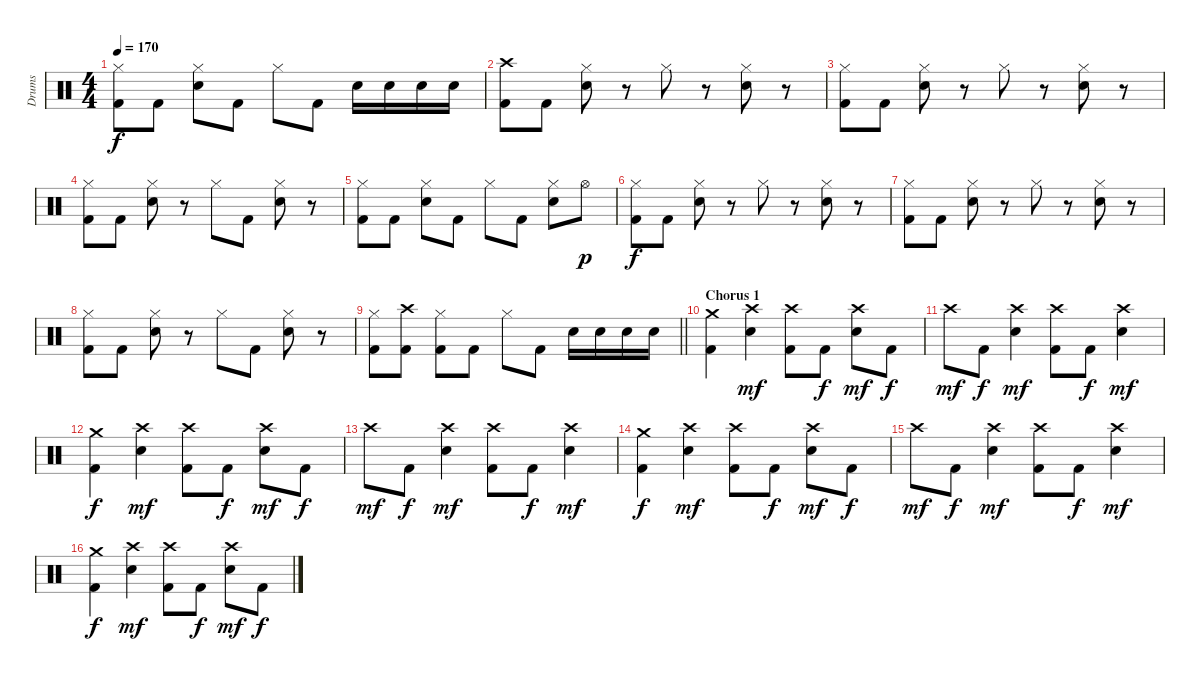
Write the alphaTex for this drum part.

\track ("Drums" "Drums") {instrument percussion}
\staff {score}
\articulation defaults
\ts (4 4)
\tempo 170
\clef neutral
\ks c
("Hi-Hat (closed)" "Kick (hit) 2").8{dy f} "Kick (hit) 2".8 ("Hi-Hat (closed)" "Electric Snare (hit)").8 "Kick (hit) 2".8 "Hi-Hat (closed)".8 "Kick (hit) 2".8 "Electric Snare (hit)".16 "Electric Snare (hit)".16 "Electric Snare (hit)".16 "Electric Snare (hit)".16 |
("Crash high (hit)" "Kick (hit) 2").8 "Kick (hit) 2".8 ("Hi-Hat (closed)" "Electric Snare (hit)").8 r.8 "Hi-Hat (closed)".8 r.8 ("Hi-Hat (closed)" "Electric Snare (hit)").8 r.8 |
("Hi-Hat (closed)" "Kick (hit) 2").8 "Kick (hit) 2".8 ("Hi-Hat (closed)" "Electric Snare (hit)").8 r.8 "Hi-Hat (closed)".8 r.8 ("Hi-Hat (closed)" "Electric Snare (hit)").8 r.8 |
("Hi-Hat (closed)" "Kick (hit) 2").8 "Kick (hit) 2".8 ("Hi-Hat (closed)" "Electric Snare (hit)").8 r.8 "Hi-Hat (closed)".8 "Kick (hit) 2".8 ("Hi-Hat (closed)" "Electric Snare (hit)").8 r.8 |
("Hi-Hat (closed)" "Kick (hit) 2").8 "Kick (hit) 2".8 ("Hi-Hat (closed)" "Electric Snare (hit)").8 "Kick (hit) 2".8 "Hi-Hat (closed)".8 "Kick (hit) 2".8 ("Hi-Hat (closed)" "Electric Snare (hit)").8 "Hi-Hat (open)".8{dy p} |
("Hi-Hat (closed)" "Kick (hit) 2").8{dy f} "Kick (hit) 2".8 ("Hi-Hat (closed)" "Electric Snare (hit)").8 r.8 "Hi-Hat (closed)".8 r.8 ("Hi-Hat (closed)" "Electric Snare (hit)").8 r.8 |
("Hi-Hat (closed)" "Kick (hit) 2").8 "Kick (hit) 2".8 ("Hi-Hat (closed)" "Electric Snare (hit)").8 r.8 "Hi-Hat (closed)".8 r.8 ("Hi-Hat (closed)" "Electric Snare (hit)").8 r.8 |
("Hi-Hat (closed)" "Kick (hit) 2").8 "Kick (hit) 2".8 ("Hi-Hat (closed)" "Electric Snare (hit)").8 r.8 "Hi-Hat (closed)".8 "Kick (hit) 2".8 ("Hi-Hat (closed)" "Electric Snare (hit)").8 r.8 |
\barLineRight lightlight
("Hi-Hat (closed)" "Kick (hit) 2").8 ("Crash high (hit)" "Kick (hit) 2").8 ("Hi-Hat (closed)" "Kick (hit) 2").8 "Kick (hit) 2".8 "Hi-Hat (closed)".8 "Kick (hit) 2".8 "Electric Snare (hit)".16 "Electric Snare (hit)".16 "Electric Snare (hit)".16 "Electric Snare (hit)".16 |
\section ("" "Chorus 1")
("Crash medium (hit)" "Kick (hit) 2").4 ("Crash high (hit)" "Electric Snare (hit)").4{dy mf} ("Crash high (hit)" "Kick (hit) 2").8 "Kick (hit) 2".8{dy f} ("Crash high (hit)" "Electric Snare (hit)").8{dy mf} "Kick (hit) 2".8{dy f} |
"Crash high (hit)".8{dy mf} "Kick (hit) 2".8{dy f} ("Crash high (hit)" "Electric Snare (hit)").4{dy mf} ("Crash high (hit)" "Kick (hit) 2").8 "Kick (hit) 2".8{dy f} ("Crash high (hit)" "Electric Snare (hit)").4{dy mf} |
("Crash medium (hit)" "Kick (hit) 2").4{dy f} ("Crash high (hit)" "Electric Snare (hit)").4{dy mf} ("Crash high (hit)" "Kick (hit) 2").8 "Kick (hit) 2".8{dy f} ("Crash high (hit)" "Electric Snare (hit)").8{dy mf} "Kick (hit) 2".8{dy f} |
"Crash high (hit)".8{dy mf} "Kick (hit) 2".8{dy f} ("Crash high (hit)" "Electric Snare (hit)").4{dy mf} ("Crash high (hit)" "Kick (hit) 2").8 "Kick (hit) 2".8{dy f} ("Crash high (hit)" "Electric Snare (hit)").4{dy mf} |
("Crash medium (hit)" "Kick (hit) 2").4{dy f} ("Crash high (hit)" "Electric Snare (hit)").4{dy mf} ("Crash high (hit)" "Kick (hit) 2").8 "Kick (hit) 2".8{dy f} ("Crash high (hit)" "Electric Snare (hit)").8{dy mf} "Kick (hit) 2".8{dy f} |
"Crash high (hit)".8{dy mf} "Kick (hit) 2".8{dy f} ("Crash high (hit)" "Electric Snare (hit)").4{dy mf} ("Crash high (hit)" "Kick (hit) 2").8 "Kick (hit) 2".8{dy f} ("Crash high (hit)" "Electric Snare (hit)").4{dy mf} |
("Crash medium (hit)" "Kick (hit) 2").4{dy f} ("Crash high (hit)" "Electric Snare (hit)").4{dy mf} ("Crash high (hit)" "Kick (hit) 2").8 "Kick (hit) 2".8{dy f} ("Crash high (hit)" "Electric Snare (hit)").8{dy mf} "Kick (hit) 2".8{dy f}
